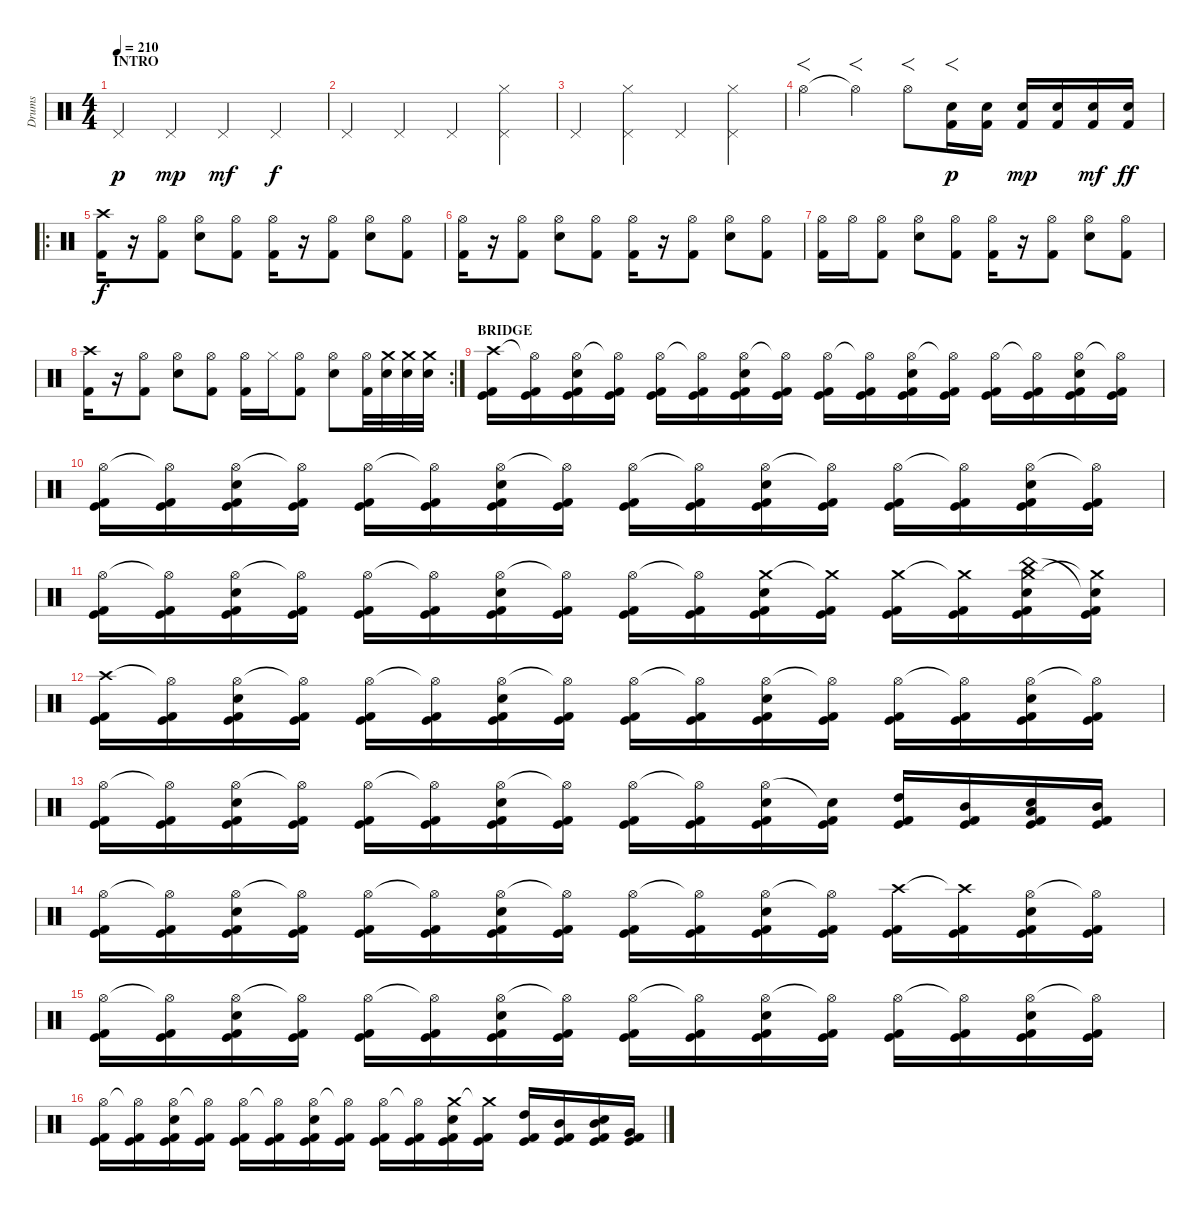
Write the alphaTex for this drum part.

\track ("Drums" "Drums") {instrument percussion}
\staff {score}
\articulation defaults
\ts (4 4)
\section ("" "INTRO")
\tempo 210
\clef neutral
\ks c "Pedal Hi-Hat (hit)".4{dy p} "Pedal Hi-Hat (hit)".4{dy mp} "Pedal Hi-Hat (hit)".4{dy mf} "Pedal Hi-Hat (hit)".4{dy f}
|
"Pedal Hi-Hat (hit)".4 "Pedal Hi-Hat (hit)".4 "Pedal Hi-Hat (hit)".4 ("Hi-Hat (closed)" "Pedal Hi-Hat (hit)").4 |
"Pedal Hi-Hat (hit)".4 ("Hi-Hat (closed)" "Pedal Hi-Hat (hit)").4 "Pedal Hi-Hat (hit)".4 ("Hi-Hat (closed)" "Pedal Hi-Hat (hit)").4 |
"Hi-Hat (open)".4{f} "Hi-Hat (open)"{t}.4{f} "Hi-Hat (open)".8{f} ("Electric Snare (hit)" "Kick (hit) 2").16{f dy p} ("Electric Snare (hit)" "Kick (hit) 2").16 ("Electric Snare (hit)" "Kick (hit) 2").16{dy mp} ("Electric Snare (hit)" "Kick (hit) 2").16 ("Electric Snare (hit)" "Kick (hit) 2").16{dy mf} ("Electric Snare (hit)" "Kick (hit) 2").16{dy ff} |
\ro
("Crash high (hit)" "Kick (hit) 2").16{dy f} r.16 ("Hi-Hat (open)" "Kick (hit) 2").8 ("Hi-Hat (open)" "Electric Snare (hit)").8 ("Hi-Hat (open)" "Kick (hit) 2").8 ("Hi-Hat (open)" "Kick (hit) 2").16 r.16 ("Hi-Hat (open)" "Kick (hit) 2").8 ("Hi-Hat (open)" "Electric Snare (hit)").8 ("Hi-Hat (open)" "Kick (hit) 2").8 |
("Hi-Hat (open)" "Kick (hit) 2").16 r.16 ("Hi-Hat (open)" "Kick (hit) 2").8 ("Hi-Hat (open)" "Electric Snare (hit)").8 ("Hi-Hat (open)" "Kick (hit) 2").8 ("Hi-Hat (open)" "Kick (hit) 2").16 r.16 ("Hi-Hat (open)" "Kick (hit) 2").8 ("Hi-Hat (open)" "Electric Snare (hit)").8 ("Hi-Hat (open)" "Kick (hit) 2").8 |
("Hi-Hat (open)" "Kick (hit) 2").16 "Hi-Hat (open)".16 ("Hi-Hat (open)" "Kick (hit) 2").8 ("Hi-Hat (open)" "Electric Snare (hit)").8 ("Hi-Hat (open)" "Kick (hit) 2").8 ("Hi-Hat (open)" "Kick (hit) 2").16 r.16 ("Hi-Hat (open)" "Kick (hit) 2").8 ("Hi-Hat (open)" "Electric Snare (hit)").8 ("Hi-Hat (open)" "Kick (hit) 2").8 |
\rc 2
("Crash high (hit)" "Kick (hit) 2").16 r.16 ("Hi-Hat (open)" "Kick (hit) 2").8 ("Hi-Hat (open)" "Electric Snare (hit)").8 ("Hi-Hat (open)" "Kick (hit) 2").8 ("Hi-Hat (open)" "Kick (hit) 2").16 "Hi-Hat (closed)".16 ("Hi-Hat (open)" "Kick (hit) 2").8 ("Hi-Hat (open)" "Electric Snare (hit)").8 ("Hi-Hat (open)" "Kick (hit) 2").32 ("Crash medium (hit)" "Electric Snare (hit)").32 ("Crash medium (hit)" "Electric Snare (hit)").32 ("Crash medium (hit)" "Electric Snare (hit)").32 |
\section ("" "BRIDGE")
("Crash high (hit)" "Kick (hit)" "Kick (hit) 2").16 ("Hi-Hat (open)"{t} "Kick (hit)" "Kick (hit) 2").16 ("Hi-Hat (open)" "Electric Snare (hit)" "Kick (hit)" "Kick (hit) 2").16 ("Hi-Hat (open)"{t} "Kick (hit)" "Kick (hit) 2").16 ("Hi-Hat (open)" "Kick (hit)" "Kick (hit) 2").16 ("Hi-Hat (open)"{t} "Kick (hit)" "Kick (hit) 2").16 ("Hi-Hat (open)" "Electric Snare (hit)" "Kick (hit)" "Kick (hit) 2").16 ("Hi-Hat (open)"{t} "Kick (hit)" "Kick (hit) 2").16 ("Hi-Hat (open)" "Kick (hit)" "Kick (hit) 2").16 ("Hi-Hat (open)"{t} "Kick (hit)" "Kick (hit) 2").16 ("Hi-Hat (open)" "Electric Snare (hit)" "Kick (hit)" "Kick (hit) 2").16 ("Hi-Hat (open)"{t} "Kick (hit)" "Kick (hit) 2").16 ("Hi-Hat (open)" "Kick (hit)" "Kick (hit) 2").16 ("Hi-Hat (open)"{t} "Kick (hit)" "Kick (hit) 2").16 ("Hi-Hat (open)" "Electric Snare (hit)" "Kick (hit)" "Kick (hit) 2").16 ("Hi-Hat (open)"{t} "Kick (hit)" "Kick (hit) 2").16 |
("Hi-Hat (open)" "Kick (hit)" "Kick (hit) 2").16 ("Hi-Hat (open)"{t} "Kick (hit)" "Kick (hit) 2").16 ("Hi-Hat (open)" "Electric Snare (hit)" "Kick (hit)" "Kick (hit) 2").16 ("Hi-Hat (open)"{t} "Kick (hit)" "Kick (hit) 2").16 ("Hi-Hat (open)" "Kick (hit)" "Kick (hit) 2").16 ("Hi-Hat (open)"{t} "Kick (hit)" "Kick (hit) 2").16 ("Hi-Hat (open)" "Electric Snare (hit)" "Kick (hit)" "Kick (hit) 2").16 ("Hi-Hat (open)"{t} "Kick (hit)" "Kick (hit) 2").16 ("Hi-Hat (open)" "Kick (hit)" "Kick (hit) 2").16 ("Hi-Hat (open)"{t} "Kick (hit)" "Kick (hit) 2").16 ("Hi-Hat (open)" "Electric Snare (hit)" "Kick (hit)" "Kick (hit) 2").16 ("Hi-Hat (open)"{t} "Kick (hit)" "Kick (hit) 2").16 ("Hi-Hat (open)" "Kick (hit)" "Kick (hit) 2").16 ("Hi-Hat (open)"{t} "Kick (hit)" "Kick (hit) 2").16 ("Hi-Hat (open)" "Electric Snare (hit)" "Kick (hit)" "Kick (hit) 2").16 ("Hi-Hat (open)"{t} "Kick (hit)" "Kick (hit) 2").16 |
("Hi-Hat (open)" "Kick (hit)" "Kick (hit) 2").16 ("Hi-Hat (open)"{t} "Kick (hit)" "Kick (hit) 2").16 ("Hi-Hat (open)" "Electric Snare (hit)" "Kick (hit)" "Kick (hit) 2").16 ("Hi-Hat (open)"{t} "Kick (hit)" "Kick (hit) 2").16 ("Hi-Hat (open)" "Kick (hit)" "Kick (hit) 2").16 ("Hi-Hat (open)"{t} "Kick (hit)" "Kick (hit) 2").16 ("Hi-Hat (open)" "Electric Snare (hit)" "Kick (hit)" "Kick (hit) 2").16 ("Hi-Hat (open)"{t} "Kick (hit)" "Kick (hit) 2").16 ("Hi-Hat (open)" "Kick (hit)" "Kick (hit) 2").16 ("Hi-Hat (open)"{t} "Kick (hit)" "Kick (hit) 2").16 ("Crash medium (hit)" "Electric Snare (hit)" "Kick (hit)" "Kick (hit) 2").16 ("Crash medium (hit)"{t} "Kick (hit)" "Kick (hit) 2").16 ("Crash medium (hit)" "Kick (hit)" "Kick (hit) 2").16 ("Crash medium (hit)"{t} "Kick (hit)" "Kick (hit) 2").16 ("Crash medium (hit)" "China (hit)" "Electric Snare (hit)" "Kick (hit)" "Kick (hit) 2").16 ("Crash medium (hit)"{t} "Snare (hit)"{t} "Kick (hit)" "Kick (hit) 2").16 |
("Crash high (hit)" "Kick (hit)" "Kick (hit) 2").16 ("Hi-Hat (open)"{t} "Kick (hit)" "Kick (hit) 2").16 ("Hi-Hat (open)" "Electric Snare (hit)" "Kick (hit)" "Kick (hit) 2").16 ("Hi-Hat (open)"{t} "Kick (hit)" "Kick (hit) 2").16 ("Hi-Hat (open)" "Kick (hit)" "Kick (hit) 2").16 ("Hi-Hat (open)"{t} "Kick (hit)" "Kick (hit) 2").16 ("Hi-Hat (open)" "Electric Snare (hit)" "Kick (hit)" "Kick (hit) 2").16 ("Hi-Hat (open)"{t} "Kick (hit)" "Kick (hit) 2").16 ("Hi-Hat (open)" "Kick (hit)" "Kick (hit) 2").16 ("Hi-Hat (open)"{t} "Kick (hit)" "Kick (hit) 2").16 ("Hi-Hat (open)" "Electric Snare (hit)" "Kick (hit)" "Kick (hit) 2").16 ("Hi-Hat (open)"{t} "Kick (hit)" "Kick (hit) 2").16 ("Hi-Hat (open)" "Kick (hit)" "Kick (hit) 2").16 ("Hi-Hat (open)"{t} "Kick (hit)" "Kick (hit) 2").16 ("Hi-Hat (open)" "Electric Snare (hit)" "Kick (hit)" "Kick (hit) 2").16 ("Hi-Hat (open)"{t} "Kick (hit)" "Kick (hit) 2").16 |
("Hi-Hat (open)" "Kick (hit)" "Kick (hit) 2").16 ("Hi-Hat (open)"{t} "Kick (hit)" "Kick (hit) 2").16 ("Hi-Hat (open)" "Electric Snare (hit)" "Kick (hit)" "Kick (hit) 2").16 ("Hi-Hat (open)"{t} "Kick (hit)" "Kick (hit) 2").16 ("Hi-Hat (open)" "Kick (hit)" "Kick (hit) 2").16 ("Hi-Hat (open)"{t} "Kick (hit)" "Kick (hit) 2").16 ("Hi-Hat (open)" "Electric Snare (hit)" "Kick (hit)" "Kick (hit) 2").16 ("Hi-Hat (open)"{t} "Kick (hit)" "Kick (hit) 2").16 ("Hi-Hat (open)" "Kick (hit)" "Kick (hit) 2").16 ("Hi-Hat (open)"{t} "Kick (hit)" "Kick (hit) 2").16 ("Hi-Hat (open)" "Electric Snare (hit)" "Kick (hit)" "Kick (hit) 2").16 ("Snare (hit)"{t} "Kick (hit)" "Kick (hit) 2").16 ("High Tom (hit)" "Kick (hit)" "Kick (hit) 2").16 ("Mid Tom (hit)" "Kick (hit)" "Kick (hit) 2").16 ("Low Tom (hit)" "Electric Snare (hit)" "Kick (hit)" "Kick (hit) 2").16 ("Mid Tom (hit)" "Kick (hit)" "Kick (hit) 2").16 |
("Hi-Hat (open)" "Kick (hit)" "Kick (hit) 2").16 ("Hi-Hat (open)"{t} "Kick (hit)" "Kick (hit) 2").16 ("Hi-Hat (open)" "Electric Snare (hit)" "Kick (hit)" "Kick (hit) 2").16 ("Hi-Hat (open)"{t} "Kick (hit)" "Kick (hit) 2").16 ("Hi-Hat (open)" "Kick (hit)" "Kick (hit) 2").16 ("Hi-Hat (open)"{t} "Kick (hit)" "Kick (hit) 2").16 ("Hi-Hat (open)" "Electric Snare (hit)" "Kick (hit)" "Kick (hit) 2").16 ("Hi-Hat (open)"{t} "Kick (hit)" "Kick (hit) 2").16 ("Hi-Hat (open)" "Kick (hit)" "Kick (hit) 2").16 ("Hi-Hat (open)"{t} "Kick (hit)" "Kick (hit) 2").16 ("Hi-Hat (open)" "Electric Snare (hit)" "Kick (hit)" "Kick (hit) 2").16 ("Hi-Hat (open)"{t} "Kick (hit)" "Kick (hit) 2").16 ("Crash high (hit)" "Kick (hit)" "Kick (hit) 2").16 ("Crash high (hit)"{t} "Kick (hit)" "Kick (hit) 2").16 ("Hi-Hat (open)" "Electric Snare (hit)" "Kick (hit)" "Kick (hit) 2").16 ("Hi-Hat (open)"{t} "Kick (hit)" "Kick (hit) 2").16 |
("Hi-Hat (open)" "Kick (hit)" "Kick (hit) 2").16 ("Hi-Hat (open)"{t} "Kick (hit)" "Kick (hit) 2").16 ("Hi-Hat (open)" "Electric Snare (hit)" "Kick (hit)" "Kick (hit) 2").16 ("Hi-Hat (open)"{t} "Kick (hit)" "Kick (hit) 2").16 ("Hi-Hat (open)" "Kick (hit)" "Kick (hit) 2").16 ("Hi-Hat (open)"{t} "Kick (hit)" "Kick (hit) 2").16 ("Hi-Hat (open)" "Electric Snare (hit)" "Kick (hit)" "Kick (hit) 2").16 ("Hi-Hat (open)"{t} "Kick (hit)" "Kick (hit) 2").16 ("Hi-Hat (open)" "Kick (hit)" "Kick (hit) 2").16 ("Hi-Hat (open)"{t} "Kick (hit)" "Kick (hit) 2").16 ("Hi-Hat (open)" "Electric Snare (hit)" "Kick (hit)" "Kick (hit) 2").16 ("Hi-Hat (open)"{t} "Kick (hit)" "Kick (hit) 2").16 ("Hi-Hat (open)" "Kick (hit)" "Kick (hit) 2").16 ("Hi-Hat (open)"{t} "Kick (hit)" "Kick (hit) 2").16 ("Hi-Hat (open)" "Electric Snare (hit)" "Kick (hit)" "Kick (hit) 2").16 ("Hi-Hat (open)"{t} "Kick (hit)" "Kick (hit) 2").16 |
("Hi-Hat (open)" "Kick (hit)" "Kick (hit) 2").16 ("Hi-Hat (open)"{t} "Kick (hit)" "Kick (hit) 2").16 ("Hi-Hat (open)" "Electric Snare (hit)" "Kick (hit)" "Kick (hit) 2").16 ("Hi-Hat (open)"{t} "Kick (hit)" "Kick (hit) 2").16 ("Hi-Hat (open)" "Kick (hit)" "Kick (hit) 2").16 ("Hi-Hat (open)"{t} "Kick (hit)" "Kick (hit) 2").16 ("Hi-Hat (open)" "Electric Snare (hit)" "Kick (hit)" "Kick (hit) 2").16 ("Hi-Hat (open)"{t} "Kick (hit)" "Kick (hit) 2").16 ("Hi-Hat (open)" "Kick (hit)" "Kick (hit) 2").16 ("Hi-Hat (open)"{t} "Kick (hit)" "Kick (hit) 2").16 ("Crash medium (hit)" "Electric Snare (hit)" "Kick (hit)" "Kick (hit) 2").16 ("Crash medium (hit)"{t} "Kick (hit)" "Kick (hit) 2").16 ("High Tom (hit)" "Kick (hit)" "Kick (hit) 2").16 ("Mid Tom (hit)" "Kick (hit)" "Kick (hit) 2").16 ("Mid Tom (hit)" "Electric Snare (hit)" "Kick (hit)" "Kick (hit) 2").16 ("Very Low Tom (hit)" "Kick (hit)" "Kick (hit) 2").16
